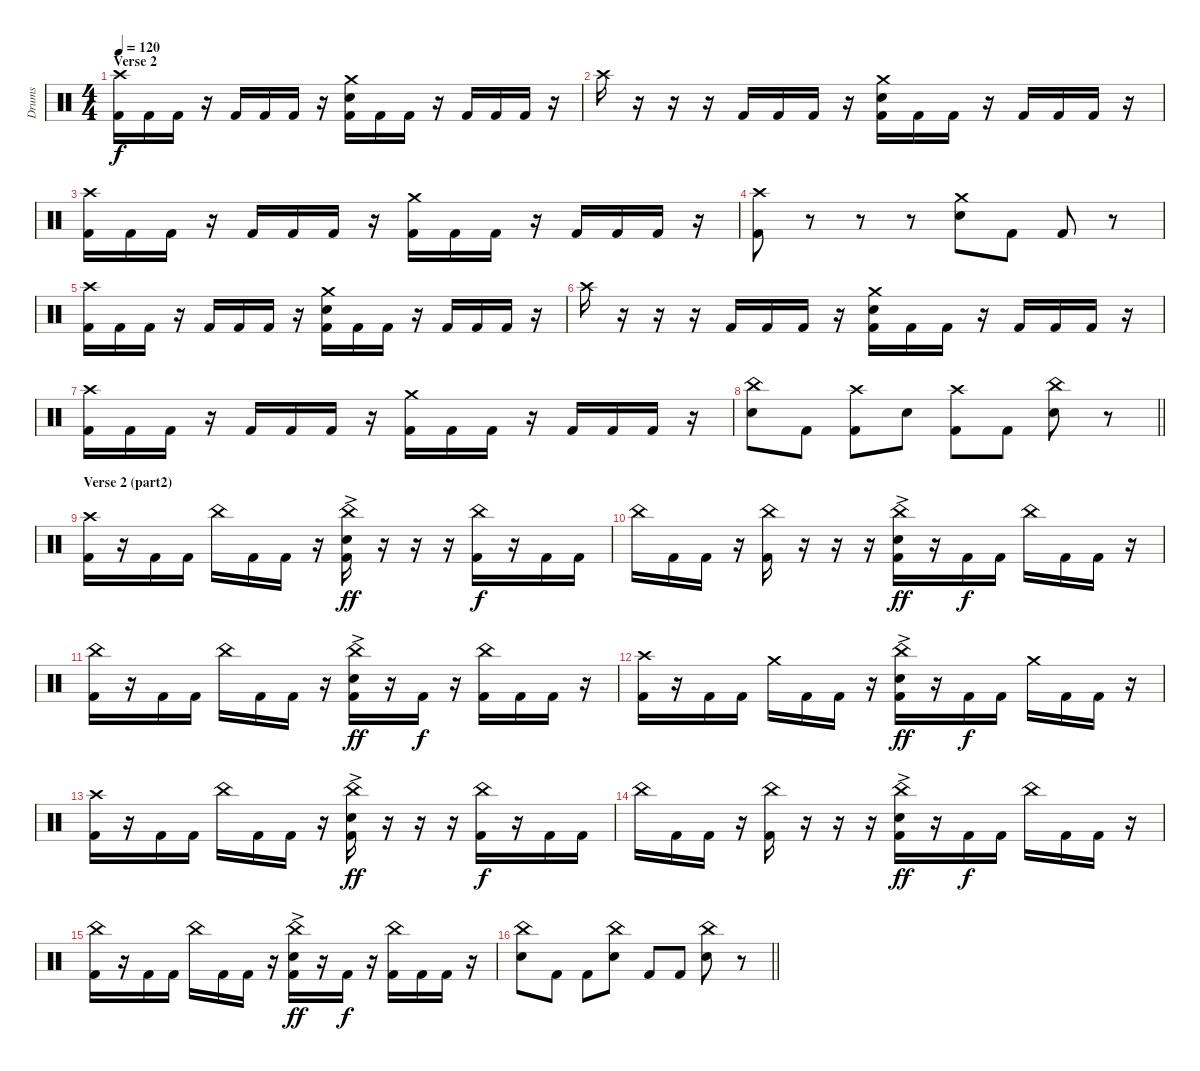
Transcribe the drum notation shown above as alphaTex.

\track ("Drums" "Drums") {instrument percussion}
\staff {score}
\articulation defaults
\ts (4 4)
\section ("" "Verse 2")
\tempo 120
\clef neutral
\ks c
("Kick (hit) 2" "Crash high (hit)").16{dy f} "Kick (hit) 2".16 "Kick (hit) 2".16 r.16 "Kick (hit) 2".16 "Kick (hit) 2".16 "Kick (hit) 2".16 r.16 ("Kick (hit) 2" "Electric Snare (hit)" "Crash medium (hit)").16 "Kick (hit) 2".16 "Kick (hit) 2".16 r.16 "Kick (hit) 2".16 "Kick (hit) 2".16 "Kick (hit) 2".16 r.16 |
"Crash high (hit)".16 r.16 r.16 r.16 "Kick (hit) 2".16 "Kick (hit) 2".16 "Kick (hit) 2".16 r.16 ("Kick (hit) 2" "Electric Snare (hit)" "Crash medium (hit)").16 "Kick (hit) 2".16 "Kick (hit) 2".16 r.16 "Kick (hit) 2".16 "Kick (hit) 2".16 "Kick (hit) 2".16 r.16 |
("Kick (hit) 2" "Crash high (hit)").16 "Kick (hit) 2".16 "Kick (hit) 2".16 r.16 "Kick (hit) 2".16 "Kick (hit) 2".16 "Kick (hit) 2".16 r.16 ("Kick (hit) 2" "Crash medium (hit)").16 "Kick (hit) 2".16 "Kick (hit) 2".16 r.16 "Kick (hit) 2".16 "Kick (hit) 2".16 "Kick (hit) 2".16 r.16 |
("Kick (hit) 2" "Crash high (hit)").8 r.8 r.8 r.8 ("Electric Snare (hit)" "Crash medium (hit)").8 "Kick (hit) 2".8 "Kick (hit) 2".8 r.8 |
("Kick (hit) 2" "Crash high (hit)").16 "Kick (hit) 2".16 "Kick (hit) 2".16 r.16 "Kick (hit) 2".16 "Kick (hit) 2".16 "Kick (hit) 2".16 r.16 ("Kick (hit) 2" "Electric Snare (hit)" "Crash medium (hit)").16 "Kick (hit) 2".16 "Kick (hit) 2".16 r.16 "Kick (hit) 2".16 "Kick (hit) 2".16 "Kick (hit) 2".16 r.16 |
"Crash high (hit)".16 r.16 r.16 r.16 "Kick (hit) 2".16 "Kick (hit) 2".16 "Kick (hit) 2".16 r.16 ("Kick (hit) 2" "Electric Snare (hit)" "Crash medium (hit)").16 "Kick (hit) 2".16 "Kick (hit) 2".16 r.16 "Kick (hit) 2".16 "Kick (hit) 2".16 "Kick (hit) 2".16 r.16 |
("Kick (hit) 2" "Crash high (hit)").16 "Kick (hit) 2".16 "Kick (hit) 2".16 r.16 "Kick (hit) 2".16 "Kick (hit) 2".16 "Kick (hit) 2".16 r.16 ("Kick (hit) 2" "Crash medium (hit)").16 "Kick (hit) 2".16 "Kick (hit) 2".16 r.16 "Kick (hit) 2".16 "Kick (hit) 2".16 "Kick (hit) 2".16 r.16 |
\barLineRight lightlight
("Electric Snare (hit)" "China (hit)").8 "Kick (hit) 2".8 ("Kick (hit) 2" "Crash high (hit)").8 "Electric Snare (hit)".8 ("Kick (hit) 2" "Crash high (hit)").8 "Kick (hit) 2".8 ("Electric Snare (hit)" "China (hit)").8 r.8 |
\section ("" "Verse 2 (part2)")
("Kick (hit) 2" "Crash high (hit)").16 r.16 "Kick (hit) 2".16 "Kick (hit) 2".16 "China (hit)".16 "Kick (hit) 2".16 "Kick (hit) 2".16 r.16 ("Kick (hit) 2" "Electric Snare (hit)"{ac} "China (hit)").16{dy ff} r.16 r.16 r.16 ("Kick (hit) 2" "China (hit)").16{dy f} r.16 "Kick (hit) 2".16 "Kick (hit) 2".16 |
"China (hit)".16 "Kick (hit) 2".16 "Kick (hit) 2".16 r.16 ("Kick (hit) 2" "China (hit)").16 r.16 r.16 r.16 ("Kick (hit) 2" "Electric Snare (hit)"{ac} "China (hit)").16{dy ff} r.16 "Kick (hit) 2".16{dy f} "Kick (hit) 2".16 "China (hit)".16 "Kick (hit) 2".16 "Kick (hit) 2".16 r.16 |
("Kick (hit) 2" "China (hit)").16 r.16 "Kick (hit) 2".16 "Kick (hit) 2".16 "China (hit)".16 "Kick (hit) 2".16 "Kick (hit) 2".16 r.16 ("Kick (hit) 2" "Electric Snare (hit)"{ac} "China (hit)").16{dy ff} r.16 "Kick (hit) 2".16{dy f} r.16 ("Kick (hit) 2" "China (hit)").16 "Kick (hit) 2".16 "Kick (hit) 2".16 r.16 |
("Kick (hit) 2" "Crash high (hit)").16 r.16 "Kick (hit) 2".16 "Kick (hit) 2".16 "Crash medium (hit)".16 "Kick (hit) 2".16 "Kick (hit) 2".16 r.16 ("Kick (hit) 2" "Electric Snare (hit)"{ac} "China (hit)").16{dy ff} r.16 "Kick (hit) 2".16{dy f} "Kick (hit) 2".16 "Crash medium (hit)".16 "Kick (hit) 2".16 "Kick (hit) 2".16 r.16 |
("Kick (hit) 2" "Crash high (hit)").16 r.16 "Kick (hit) 2".16 "Kick (hit) 2".16 "China (hit)".16 "Kick (hit) 2".16 "Kick (hit) 2".16 r.16 ("Kick (hit) 2" "Electric Snare (hit)"{ac} "China (hit)").16{dy ff} r.16 r.16 r.16 ("Kick (hit) 2" "China (hit)").16{dy f} r.16 "Kick (hit) 2".16 "Kick (hit) 2".16 |
"China (hit)".16 "Kick (hit) 2".16 "Kick (hit) 2".16 r.16 ("Kick (hit) 2" "China (hit)").16 r.16 r.16 r.16 ("Kick (hit) 2" "Electric Snare (hit)"{ac} "China (hit)").16{dy ff} r.16 "Kick (hit) 2".16{dy f} "Kick (hit) 2".16 "China (hit)".16 "Kick (hit) 2".16 "Kick (hit) 2".16 r.16 |
("Kick (hit) 2" "China (hit)").16 r.16 "Kick (hit) 2".16 "Kick (hit) 2".16 "China (hit)".16 "Kick (hit) 2".16 "Kick (hit) 2".16 r.16 ("Kick (hit) 2" "Electric Snare (hit)"{ac} "China (hit)").16{dy ff} r.16 "Kick (hit) 2".16{dy f} r.16 ("Kick (hit) 2" "China (hit)").16 "Kick (hit) 2".16 "Kick (hit) 2".16 r.16 |
\barLineRight lightlight
("Electric Snare (hit)" "China (hit)").8 "Kick (hit) 2".8 "Kick (hit) 2".8 ("Electric Snare (hit)" "China (hit)").8 "Kick (hit) 2".8 "Kick (hit) 2".8 ("Electric Snare (hit)" "China (hit)").8 r.8
